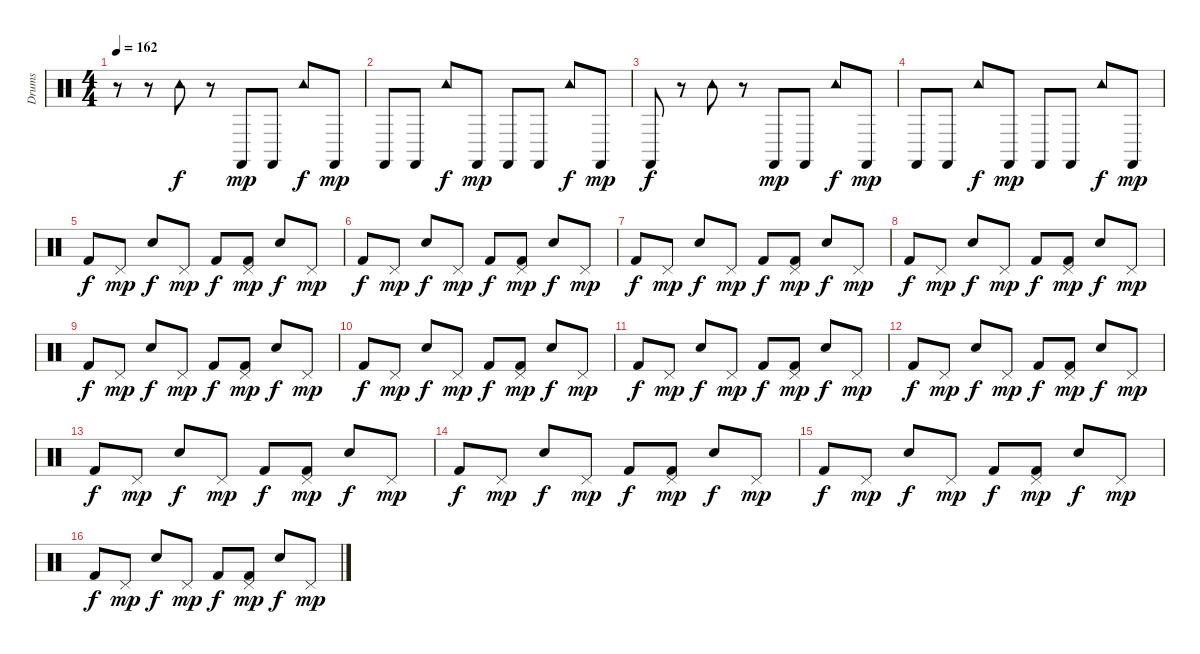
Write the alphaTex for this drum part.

\track ("Drums" "Drums") {instrument percussion}
\staff {score}
\articulation defaults
\ts (4 4)
\tempo 162
\clef neutral
\ks c
r.8{dy f} r.8 "Tambourine (hit)".8 r.8 "Castanets (hit)".8{dy mp} "Castanets (hit)".8 "Tambourine (hit)".8{dy f} "Castanets (hit)".8{dy mp} |
"Castanets (hit)".8 "Castanets (hit)".8 "Tambourine (hit)".8{dy f} "Castanets (hit)".8{dy mp} "Castanets (hit)".8 "Castanets (hit)".8 "Tambourine (hit)".8{dy f} "Castanets (hit)".8{dy mp} |
"Castanets (hit)".8{dy f} r.8 "Tambourine (hit)".8 r.8 "Castanets (hit)".8{dy mp} "Castanets (hit)".8 "Tambourine (hit)".8{dy f} "Castanets (hit)".8{dy mp} |
"Castanets (hit)".8 "Castanets (hit)".8 "Tambourine (hit)".8{dy f} "Castanets (hit)".8{dy mp} "Castanets (hit)".8 "Castanets (hit)".8 "Tambourine (hit)".8{dy f} "Castanets (hit)".8{dy mp} |
"Kick (hit) 2".8{dy f} "Pedal Hi-Hat (hit)".8{dy mp} "Snare (hit) 2".8{dy f} "Pedal Hi-Hat (hit)".8{dy mp} "Kick (hit) 2".8{dy f} ("Pedal Hi-Hat (hit)" "Kick (hit) 2").8{dy mp} "Snare (hit) 2".8{dy f} "Pedal Hi-Hat (hit)".8{dy mp} |
"Kick (hit) 2".8{dy f} "Pedal Hi-Hat (hit)".8{dy mp} "Snare (hit) 2".8{dy f} "Pedal Hi-Hat (hit)".8{dy mp} "Kick (hit) 2".8{dy f} ("Pedal Hi-Hat (hit)" "Kick (hit) 2").8{dy mp} "Snare (hit) 2".8{dy f} "Pedal Hi-Hat (hit)".8{dy mp} |
"Kick (hit) 2".8{dy f} "Pedal Hi-Hat (hit)".8{dy mp} "Snare (hit) 2".8{dy f} "Pedal Hi-Hat (hit)".8{dy mp} "Kick (hit) 2".8{dy f} ("Pedal Hi-Hat (hit)" "Kick (hit) 2").8{dy mp} "Snare (hit) 2".8{dy f} "Pedal Hi-Hat (hit)".8{dy mp} |
"Kick (hit) 2".8{dy f} "Pedal Hi-Hat (hit)".8{dy mp} "Snare (hit) 2".8{dy f} "Pedal Hi-Hat (hit)".8{dy mp} "Kick (hit) 2".8{dy f} ("Pedal Hi-Hat (hit)" "Kick (hit) 2").8{dy mp} "Snare (hit) 2".8{dy f} "Pedal Hi-Hat (hit)".8{dy mp} |
"Kick (hit) 2".8{dy f} "Pedal Hi-Hat (hit)".8{dy mp} "Snare (hit) 2".8{dy f} "Pedal Hi-Hat (hit)".8{dy mp} "Kick (hit) 2".8{dy f} ("Pedal Hi-Hat (hit)" "Kick (hit) 2").8{dy mp} "Snare (hit) 2".8{dy f} "Pedal Hi-Hat (hit)".8{dy mp} |
"Kick (hit) 2".8{dy f} "Pedal Hi-Hat (hit)".8{dy mp} "Snare (hit) 2".8{dy f} "Pedal Hi-Hat (hit)".8{dy mp} "Kick (hit) 2".8{dy f} ("Pedal Hi-Hat (hit)" "Kick (hit) 2").8{dy mp} "Snare (hit) 2".8{dy f} "Pedal Hi-Hat (hit)".8{dy mp} |
"Kick (hit) 2".8{dy f} "Pedal Hi-Hat (hit)".8{dy mp} "Snare (hit) 2".8{dy f} "Pedal Hi-Hat (hit)".8{dy mp} "Kick (hit) 2".8{dy f} ("Pedal Hi-Hat (hit)" "Kick (hit) 2").8{dy mp} "Snare (hit) 2".8{dy f} "Pedal Hi-Hat (hit)".8{dy mp} |
"Kick (hit) 2".8{dy f} "Pedal Hi-Hat (hit)".8{dy mp} "Snare (hit) 2".8{dy f} "Pedal Hi-Hat (hit)".8{dy mp} "Kick (hit) 2".8{dy f} ("Pedal Hi-Hat (hit)" "Kick (hit) 2").8{dy mp} "Snare (hit) 2".8{dy f} "Pedal Hi-Hat (hit)".8{dy mp} |
"Kick (hit) 2".8{dy f} "Pedal Hi-Hat (hit)".8{dy mp} "Snare (hit) 2".8{dy f} "Pedal Hi-Hat (hit)".8{dy mp} "Kick (hit) 2".8{dy f} ("Pedal Hi-Hat (hit)" "Kick (hit) 2").8{dy mp} "Snare (hit) 2".8{dy f} "Pedal Hi-Hat (hit)".8{dy mp} |
"Kick (hit) 2".8{dy f} "Pedal Hi-Hat (hit)".8{dy mp} "Snare (hit) 2".8{dy f} "Pedal Hi-Hat (hit)".8{dy mp} "Kick (hit) 2".8{dy f} ("Pedal Hi-Hat (hit)" "Kick (hit) 2").8{dy mp} "Snare (hit) 2".8{dy f} "Pedal Hi-Hat (hit)".8{dy mp} |
"Kick (hit) 2".8{dy f} "Pedal Hi-Hat (hit)".8{dy mp} "Snare (hit) 2".8{dy f} "Pedal Hi-Hat (hit)".8{dy mp} "Kick (hit) 2".8{dy f} ("Pedal Hi-Hat (hit)" "Kick (hit) 2").8{dy mp} "Snare (hit) 2".8{dy f} "Pedal Hi-Hat (hit)".8{dy mp} |
"Kick (hit) 2".8{dy f} "Pedal Hi-Hat (hit)".8{dy mp} "Snare (hit) 2".8{dy f} "Pedal Hi-Hat (hit)".8{dy mp} "Kick (hit) 2".8{dy f} ("Pedal Hi-Hat (hit)" "Kick (hit) 2").8{dy mp} "Snare (hit) 2".8{dy f} "Pedal Hi-Hat (hit)".8{dy mp}
